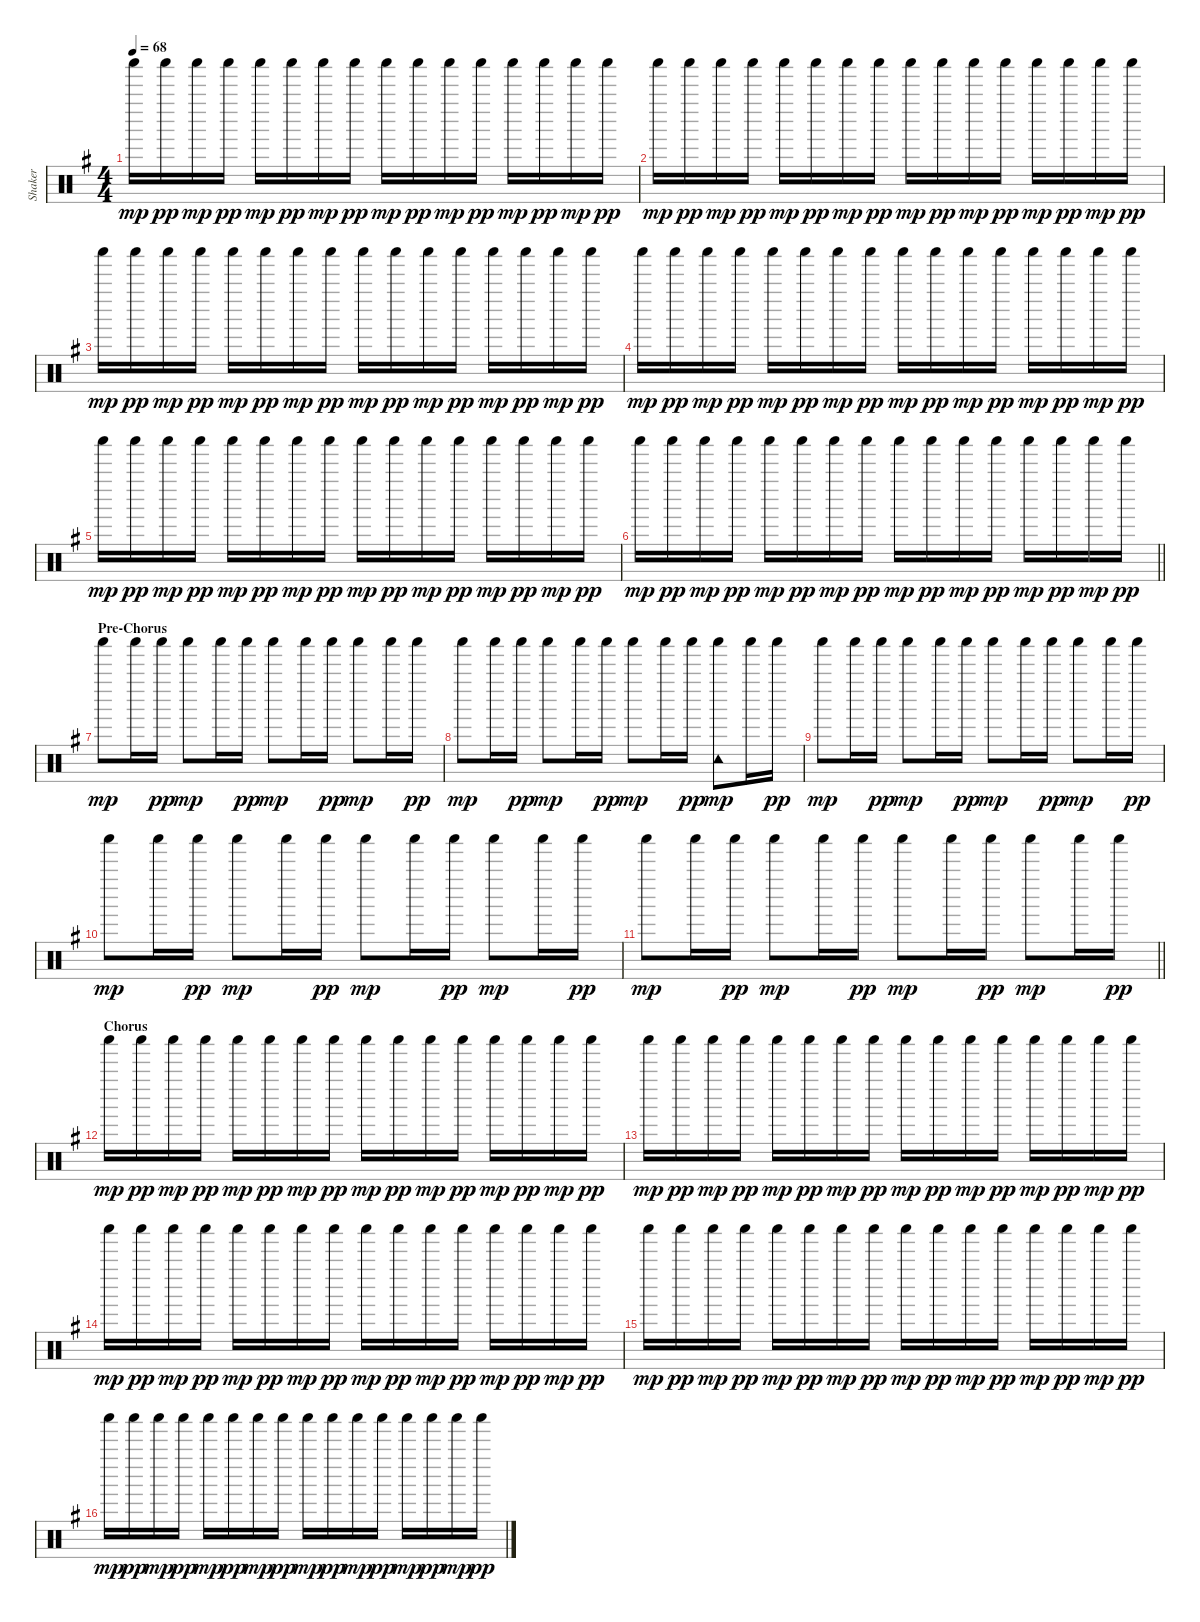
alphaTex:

\track ("Shaker" "Shaker") {instrument percussion}
\staff {score}
\articulation defaults
\ts (4 4)
\tempo 68
\clef neutral
\ks g "Shaker (hit)".16{dy mp} "Shaker (hit)".16{dy pp} "Shaker (hit)".16{dy mp} "Shaker (hit)".16{dy pp} "Shaker (hit)".16{dy mp} "Shaker (hit)".16{dy pp} "Shaker (hit)".16{dy mp} "Shaker (hit)".16{dy pp} "Shaker (hit)".16{dy mp} "Shaker (hit)".16{dy pp} "Shaker (hit)".16{dy mp} "Shaker (hit)".16{dy pp} "Shaker (hit)".16{dy mp} "Shaker (hit)".16{dy pp} "Shaker (hit)".16{dy mp} "Shaker (hit)".16{dy pp}
|
"Shaker (hit)".16{dy mp} "Shaker (hit)".16{dy pp} "Shaker (hit)".16{dy mp} "Shaker (hit)".16{dy pp} "Shaker (hit)".16{dy mp} "Shaker (hit)".16{dy pp} "Shaker (hit)".16{dy mp} "Shaker (hit)".16{dy pp} "Shaker (hit)".16{dy mp} "Shaker (hit)".16{dy pp} "Shaker (hit)".16{dy mp} "Shaker (hit)".16{dy pp} "Shaker (hit)".16{dy mp} "Shaker (hit)".16{dy pp} "Shaker (hit)".16{dy mp} "Shaker (hit)".16{dy pp} |
"Shaker (hit)".16{dy mp} "Shaker (hit)".16{dy pp} "Shaker (hit)".16{dy mp} "Shaker (hit)".16{dy pp} "Shaker (hit)".16{dy mp} "Shaker (hit)".16{dy pp} "Shaker (hit)".16{dy mp} "Shaker (hit)".16{dy pp} "Shaker (hit)".16{dy mp} "Shaker (hit)".16{dy pp} "Shaker (hit)".16{dy mp} "Shaker (hit)".16{dy pp} "Shaker (hit)".16{dy mp} "Shaker (hit)".16{dy pp} "Shaker (hit)".16{dy mp} "Shaker (hit)".16{dy pp} |
"Shaker (hit)".16{dy mp} "Shaker (hit)".16{dy pp} "Shaker (hit)".16{dy mp} "Shaker (hit)".16{dy pp} "Shaker (hit)".16{dy mp} "Shaker (hit)".16{dy pp} "Shaker (hit)".16{dy mp} "Shaker (hit)".16{dy pp} "Shaker (hit)".16{dy mp} "Shaker (hit)".16{dy pp} "Shaker (hit)".16{dy mp} "Shaker (hit)".16{dy pp} "Shaker (hit)".16{dy mp} "Shaker (hit)".16{dy pp} "Shaker (hit)".16{dy mp} "Shaker (hit)".16{dy pp} |
"Shaker (hit)".16{dy mp} "Shaker (hit)".16{dy pp} "Shaker (hit)".16{dy mp} "Shaker (hit)".16{dy pp} "Shaker (hit)".16{dy mp} "Shaker (hit)".16{dy pp} "Shaker (hit)".16{dy mp} "Shaker (hit)".16{dy pp} "Shaker (hit)".16{dy mp} "Shaker (hit)".16{dy pp} "Shaker (hit)".16{dy mp} "Shaker (hit)".16{dy pp} "Shaker (hit)".16{dy mp} "Shaker (hit)".16{dy pp} "Shaker (hit)".16{dy mp} "Shaker (hit)".16{dy pp} |
\barLineRight lightlight "Shaker (hit)".16{dy mp} "Shaker (hit)".16{dy pp} "Shaker (hit)".16{dy mp} "Shaker (hit)".16{dy pp} "Shaker (hit)".16{dy mp} "Shaker (hit)".16{dy pp} "Shaker (hit)".16{dy mp} "Shaker (hit)".16{dy pp} "Shaker (hit)".16{dy mp} "Shaker (hit)".16{dy pp} "Shaker (hit)".16{dy mp} "Shaker (hit)".16{dy pp} "Shaker (hit)".16{dy mp} "Shaker (hit)".16{dy pp} "Shaker (hit)".16{dy mp} "Shaker (hit)".16{dy pp}
|
\section ("" "Pre-Chorus")
"Shaker (hit)".8{dy mp} "Shaker (hit)".16 "Shaker (hit)".16{dy pp} "Shaker (hit)".8{dy mp} "Shaker (hit)".16 "Shaker (hit)".16{dy pp} "Shaker (hit)".8{dy mp} "Shaker (hit)".16 "Shaker (hit)".16{dy pp} "Shaker (hit)".8{dy mp} "Shaker (hit)".16 "Shaker (hit)".16{dy pp} |
"Shaker (hit)".8{dy mp} "Shaker (hit)".16 "Shaker (hit)".16{dy pp} "Shaker (hit)".8{dy mp} "Shaker (hit)".16 "Shaker (hit)".16{dy pp} "Shaker (hit)".8{dy mp} "Shaker (hit)".16 "Shaker (hit)".16{dy pp} ("Tambourine (hit)" "Shaker (hit)").8{dy mp} "Shaker (hit)".16 "Shaker (hit)".16{dy pp} |
"Shaker (hit)".8{dy mp} "Shaker (hit)".16 "Shaker (hit)".16{dy pp} "Shaker (hit)".8{dy mp} "Shaker (hit)".16 "Shaker (hit)".16{dy pp} "Shaker (hit)".8{dy mp} "Shaker (hit)".16 "Shaker (hit)".16{dy pp} "Shaker (hit)".8{dy mp} "Shaker (hit)".16 "Shaker (hit)".16{dy pp} |
"Shaker (hit)".8{dy mp} "Shaker (hit)".16 "Shaker (hit)".16{dy pp} "Shaker (hit)".8{dy mp} "Shaker (hit)".16 "Shaker (hit)".16{dy pp} "Shaker (hit)".8{dy mp} "Shaker (hit)".16 "Shaker (hit)".16{dy pp} "Shaker (hit)".8{dy mp} "Shaker (hit)".16 "Shaker (hit)".16{dy pp} |
\barLineRight lightlight "Shaker (hit)".8{dy mp} "Shaker (hit)".16 "Shaker (hit)".16{dy pp} "Shaker (hit)".8{dy mp} "Shaker (hit)".16 "Shaker (hit)".16{dy pp} "Shaker (hit)".8{dy mp} "Shaker (hit)".16 "Shaker (hit)".16{dy pp} "Shaker (hit)".8{dy mp} "Shaker (hit)".16 "Shaker (hit)".16{dy pp}
|
\section ("" "Chorus")
"Shaker (hit)".16{dy mp} "Shaker (hit)".16{dy pp} "Shaker (hit)".16{dy mp} "Shaker (hit)".16{dy pp} "Shaker (hit)".16{dy mp} "Shaker (hit)".16{dy pp} "Shaker (hit)".16{dy mp} "Shaker (hit)".16{dy pp} "Shaker (hit)".16{dy mp} "Shaker (hit)".16{dy pp} "Shaker (hit)".16{dy mp} "Shaker (hit)".16{dy pp} "Shaker (hit)".16{dy mp} "Shaker (hit)".16{dy pp} "Shaker (hit)".16{dy mp} "Shaker (hit)".16{dy pp} |
"Shaker (hit)".16{dy mp} "Shaker (hit)".16{dy pp} "Shaker (hit)".16{dy mp} "Shaker (hit)".16{dy pp} "Shaker (hit)".16{dy mp} "Shaker (hit)".16{dy pp} "Shaker (hit)".16{dy mp} "Shaker (hit)".16{dy pp} "Shaker (hit)".16{dy mp} "Shaker (hit)".16{dy pp} "Shaker (hit)".16{dy mp} "Shaker (hit)".16{dy pp} "Shaker (hit)".16{dy mp} "Shaker (hit)".16{dy pp} "Shaker (hit)".16{dy mp} "Shaker (hit)".16{dy pp} |
"Shaker (hit)".16{dy mp} "Shaker (hit)".16{dy pp} "Shaker (hit)".16{dy mp} "Shaker (hit)".16{dy pp} "Shaker (hit)".16{dy mp} "Shaker (hit)".16{dy pp} "Shaker (hit)".16{dy mp} "Shaker (hit)".16{dy pp} "Shaker (hit)".16{dy mp} "Shaker (hit)".16{dy pp} "Shaker (hit)".16{dy mp} "Shaker (hit)".16{dy pp} "Shaker (hit)".16{dy mp} "Shaker (hit)".16{dy pp} "Shaker (hit)".16{dy mp} "Shaker (hit)".16{dy pp} |
"Shaker (hit)".16{dy mp} "Shaker (hit)".16{dy pp} "Shaker (hit)".16{dy mp} "Shaker (hit)".16{dy pp} "Shaker (hit)".16{dy mp} "Shaker (hit)".16{dy pp} "Shaker (hit)".16{dy mp} "Shaker (hit)".16{dy pp} "Shaker (hit)".16{dy mp} "Shaker (hit)".16{dy pp} "Shaker (hit)".16{dy mp} "Shaker (hit)".16{dy pp} "Shaker (hit)".16{dy mp} "Shaker (hit)".16{dy pp} "Shaker (hit)".16{dy mp} "Shaker (hit)".16{dy pp} |
"Shaker (hit)".16{dy mp} "Shaker (hit)".16{dy pp} "Shaker (hit)".16{dy mp} "Shaker (hit)".16{dy pp} "Shaker (hit)".16{dy mp} "Shaker (hit)".16{dy pp} "Shaker (hit)".16{dy mp} "Shaker (hit)".16{dy pp} "Shaker (hit)".16{dy mp} "Shaker (hit)".16{dy pp} "Shaker (hit)".16{dy mp} "Shaker (hit)".16{dy pp} "Shaker (hit)".16{dy mp} "Shaker (hit)".16{dy pp} "Shaker (hit)".16{dy mp} "Shaker (hit)".16{dy pp}
